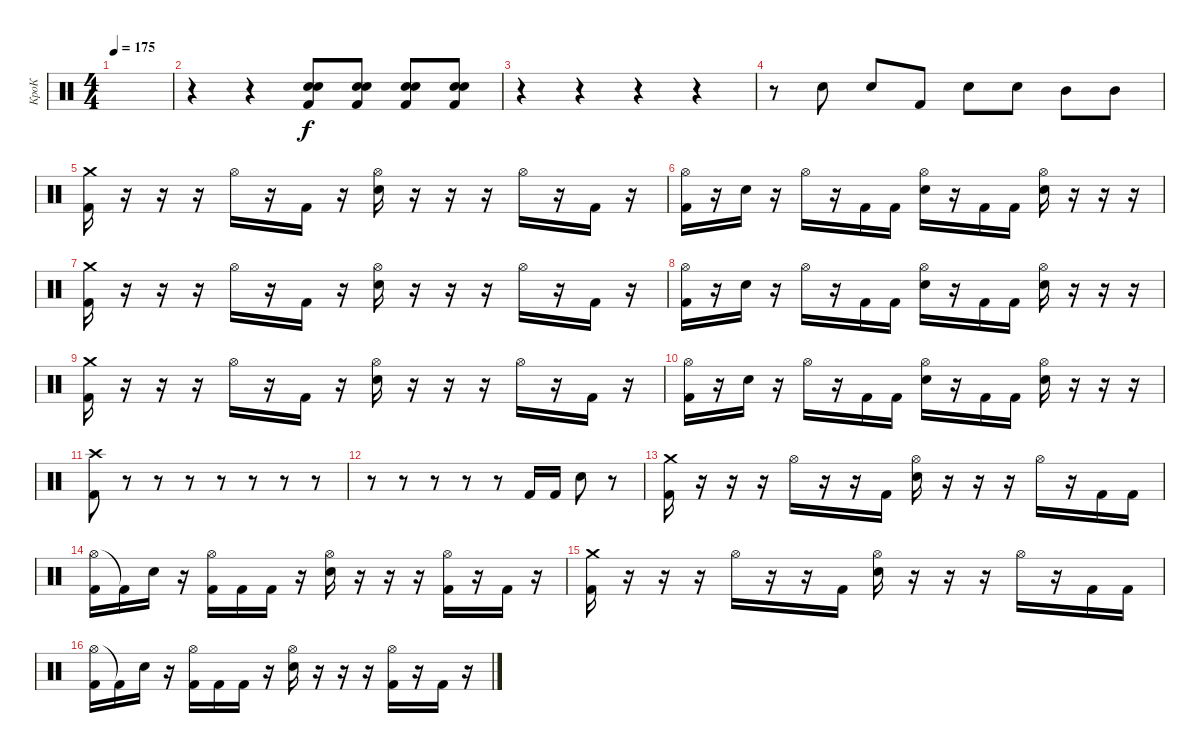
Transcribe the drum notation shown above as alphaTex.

\track ("КроК" "КроК") {instrument percussion}
\staff {score}
\articulation defaults
\ts (4 4)
\tempo 175
\clef neutral
\ks c
|
r.4 r.4 ("Electric Snare (hit)" "Kick (hit) 2" "Electric Snare (hit)").8 ("Electric Snare (hit)" "Kick (hit) 2" "Electric Snare (hit)").8 ("Electric Snare (hit)" "Kick (hit) 2" "Electric Snare (hit)").8 ("Electric Snare (hit)" "Kick (hit) 2" "Electric Snare (hit)").8 |
r.4 r.4 r.4 r.4 |
r.8 "Electric Snare (hit)".8 "Electric Snare (hit)".8 "Kick (hit) 2".8 "Electric Snare (hit)".8 "Electric Snare (hit)".8 "Mid Tom (hit)".8 "Mid Tom (hit)".8 |
("Crash medium (hit)" "Kick (hit) 2").16 r.16 r.16 r.16 "Hi-Hat (open)".16 r.16 "Kick (hit) 2".16 r.16 ("Hi-Hat (open)" "Electric Snare (hit)").16 r.16 r.16 r.16 "Hi-Hat (open)".16 r.16 "Kick (hit) 2".16 r.16 |
("Hi-Hat (open)" "Kick (hit) 2").16 r.16 "Electric Snare (hit)".16 r.16 "Hi-Hat (open)".16 r.16 "Kick (hit) 2".16 "Kick (hit) 2".16 ("Hi-Hat (open)" "Electric Snare (hit)").16 r.16 "Kick (hit) 2".16 "Kick (hit) 2".16 ("Hi-Hat (open)" "Electric Snare (hit)").16 r.16 r.16 r.16 |
("Crash medium (hit)" "Kick (hit) 2").16 r.16 r.16 r.16 "Hi-Hat (open)".16 r.16 "Kick (hit) 2".16 r.16 ("Hi-Hat (open)" "Electric Snare (hit)").16 r.16 r.16 r.16 "Hi-Hat (open)".16 r.16 "Kick (hit) 2".16 r.16 |
("Hi-Hat (open)" "Kick (hit) 2").16 r.16 "Electric Snare (hit)".16 r.16 "Hi-Hat (open)".16 r.16 "Kick (hit) 2".16 "Kick (hit) 2".16 ("Hi-Hat (open)" "Electric Snare (hit)").16 r.16 "Kick (hit) 2".16 "Kick (hit) 2".16 ("Hi-Hat (open)" "Electric Snare (hit)").16 r.16 r.16 r.16 |
("Crash medium (hit)" "Kick (hit) 2").16 r.16 r.16 r.16 "Hi-Hat (open)".16 r.16 "Kick (hit) 2".16 r.16 ("Hi-Hat (open)" "Electric Snare (hit)").16 r.16 r.16 r.16 "Hi-Hat (open)".16 r.16 "Kick (hit) 2".16 r.16 |
("Hi-Hat (open)" "Kick (hit) 2").16 r.16 "Electric Snare (hit)".16 r.16 "Hi-Hat (open)".16 r.16 "Kick (hit) 2".16 "Kick (hit) 2".16 ("Hi-Hat (open)" "Electric Snare (hit)").16 r.16 "Kick (hit) 2".16 "Kick (hit) 2".16 ("Hi-Hat (open)" "Electric Snare (hit)").16 r.16 r.16 r.16 |
("Crash high (hit)" "Kick (hit) 2").8 r.8 r.8 r.8 r.8 r.8 r.8 r.8 |
r.8 r.8 r.8 r.8 r.8 "Kick (hit) 2".16 "Kick (hit) 2".16 "Electric Snare (hit)".8 r.8 |
("Crash medium (hit)" "Kick (hit) 2").16 r.16 r.16 r.16 "Hi-Hat (open)".16 r.16 r.16 "Kick (hit) 2".16 ("Hi-Hat (open)" "Electric Snare (hit)").16 r.16 r.16 r.16 "Hi-Hat (open)".16 r.16 "Kick (hit) 2".16 "Kick (hit) 2".16 |
("Hi-Hat (open)" "Kick (hit) 2").16 "Kick (hit) 2"{t}.16 "Electric Snare (hit)".16 r.16 ("Hi-Hat (open)" "Kick (hit) 2").16 "Kick (hit) 2".16 "Kick (hit) 2".16 r.16 ("Hi-Hat (open)" "Electric Snare (hit)").16 r.16 r.16 r.16 ("Hi-Hat (open)" "Kick (hit) 2").16 r.16 "Kick (hit) 2".16 r.16 |
("Crash medium (hit)" "Kick (hit) 2").16 r.16 r.16 r.16 "Hi-Hat (open)".16 r.16 r.16 "Kick (hit) 2".16 ("Hi-Hat (open)" "Electric Snare (hit)").16 r.16 r.16 r.16 "Hi-Hat (open)".16 r.16 "Kick (hit) 2".16 "Kick (hit) 2".16 |
("Hi-Hat (open)" "Kick (hit) 2").16 "Kick (hit) 2"{t}.16 "Electric Snare (hit)".16 r.16 ("Hi-Hat (open)" "Kick (hit) 2").16 "Kick (hit) 2".16 "Kick (hit) 2".16 r.16 ("Hi-Hat (open)" "Electric Snare (hit)").16 r.16 r.16 r.16 ("Hi-Hat (open)" "Kick (hit) 2").16 r.16 "Kick (hit) 2".16 r.16
